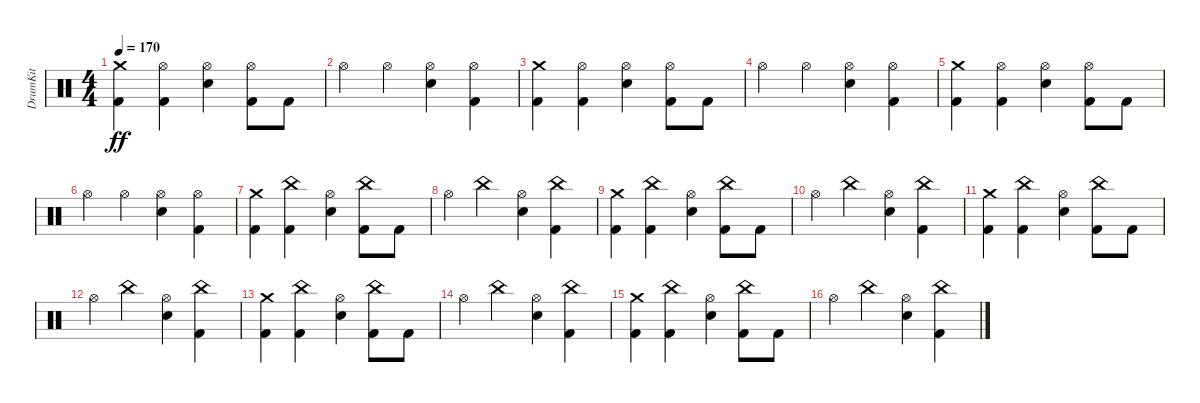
\track ("DrumKit" "DrumKit") {instrument percussion}
\staff {score}
\articulation defaults
\ts (4 4)
\tempo 170
\clef neutral
\ks c
("Kick (hit) 2" "Crash medium (hit)").4{dy ff} ("Kick (hit) 2" "Hi-Hat (open)").4 ("Snare (hit) 2" "Hi-Hat (open)").4 ("Kick (hit) 2" "Hi-Hat (open)").8 "Kick (hit) 2".8 |
"Hi-Hat (open)".4 "Hi-Hat (open)".4 ("Snare (hit) 2" "Hi-Hat (open)").4 ("Kick (hit) 2" "Hi-Hat (open)").4 |
("Kick (hit) 2" "Crash medium (hit)").4 ("Kick (hit) 2" "Hi-Hat (open)").4 ("Snare (hit) 2" "Hi-Hat (open)").4 ("Kick (hit) 2" "Hi-Hat (open)").8 "Kick (hit) 2".8 |
"Hi-Hat (open)".4 "Hi-Hat (open)".4 ("Snare (hit) 2" "Hi-Hat (open)").4 ("Kick (hit) 2" "Hi-Hat (open)").4 |
("Kick (hit) 2" "Crash medium (hit)").4 ("Kick (hit) 2" "Hi-Hat (open)").4 ("Snare (hit) 2" "Hi-Hat (open)").4 ("Kick (hit) 2" "Hi-Hat (open)").8 "Kick (hit) 2".8 |
"Hi-Hat (open)".4 "Hi-Hat (open)".4 ("Snare (hit) 2" "Hi-Hat (open)").4 ("Kick (hit) 2" "Hi-Hat (open)").4 |
("Kick (hit) 2" "Crash medium (hit)").4 ("Kick (hit) 2" "China (hit)").4 ("Snare (hit) 2" "Hi-Hat (open)").4 ("Kick (hit) 2" "China (hit)").8 "Kick (hit) 2".8 |
"Hi-Hat (open)".4 "China (hit)".4 ("Snare (hit) 2" "Hi-Hat (open)").4 ("Kick (hit) 2" "China (hit)").4 |
("Kick (hit) 2" "Crash medium (hit)").4 ("Kick (hit) 2" "China (hit)").4 ("Snare (hit) 2" "Hi-Hat (open)").4 ("Kick (hit) 2" "China (hit)").8 "Kick (hit) 2".8 |
"Hi-Hat (open)".4 "China (hit)".4 ("Snare (hit) 2" "Hi-Hat (open)").4 ("Kick (hit) 2" "China (hit)").4 |
("Kick (hit) 2" "Crash medium (hit)").4 ("Kick (hit) 2" "China (hit)").4 ("Snare (hit) 2" "Hi-Hat (open)").4 ("Kick (hit) 2" "China (hit)").8 "Kick (hit) 2".8 |
"Hi-Hat (open)".4 "China (hit)".4 ("Snare (hit) 2" "Hi-Hat (open)").4 ("Kick (hit) 2" "China (hit)").4 |
("Kick (hit) 2" "Crash medium (hit)").4 ("Kick (hit) 2" "China (hit)").4 ("Snare (hit) 2" "Hi-Hat (open)").4 ("Kick (hit) 2" "China (hit)").8 "Kick (hit) 2".8 |
"Hi-Hat (open)".4 "China (hit)".4 ("Snare (hit) 2" "Hi-Hat (open)").4 ("Kick (hit) 2" "China (hit)").4 |
("Kick (hit) 2" "Crash medium (hit)").4 ("Kick (hit) 2" "China (hit)").4 ("Snare (hit) 2" "Hi-Hat (open)").4 ("Kick (hit) 2" "China (hit)").8 "Kick (hit) 2".8 |
"Hi-Hat (open)".4 "China (hit)".4 ("Snare (hit) 2" "Hi-Hat (open)").4 ("Kick (hit) 2" "China (hit)").4
